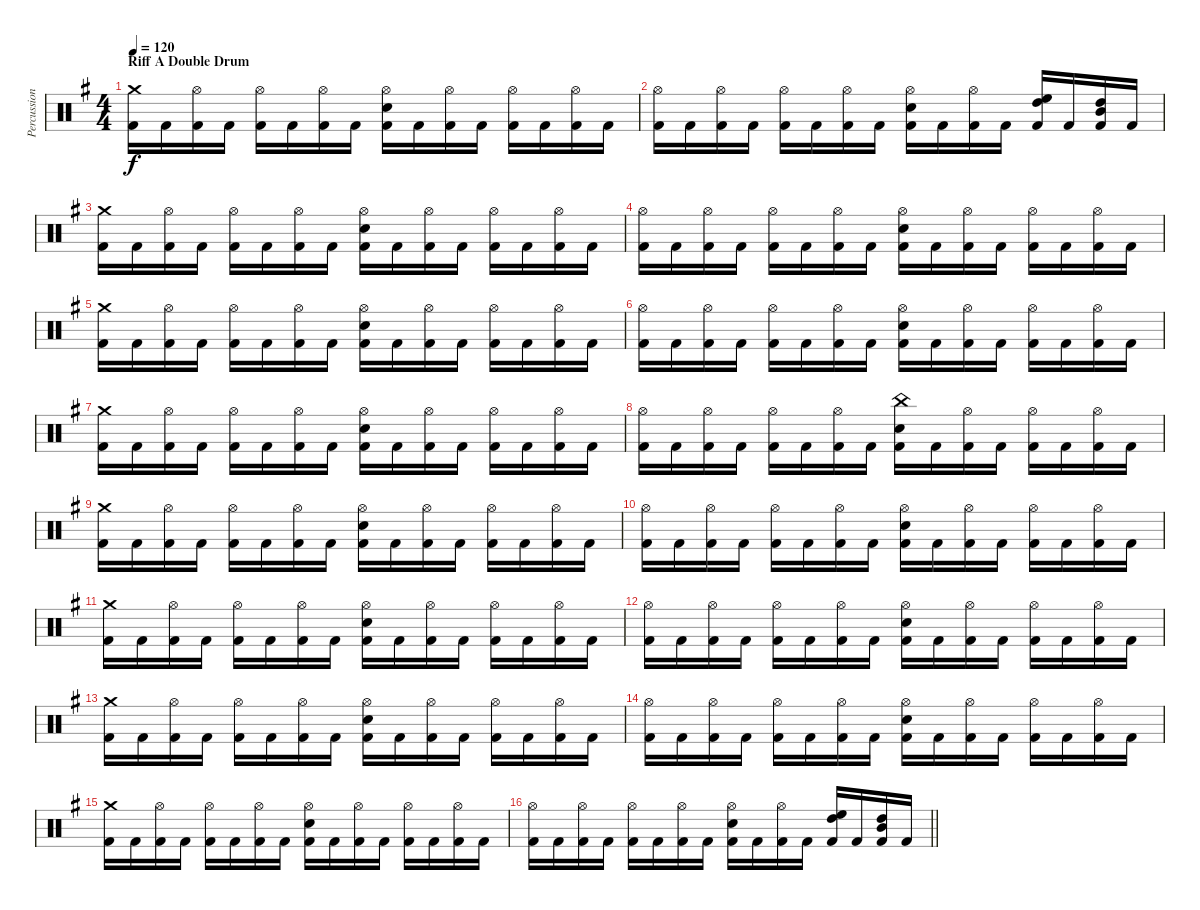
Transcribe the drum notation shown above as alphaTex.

\track ("Percussion" "Percussion") {instrument percussion}
\staff {score}
\articulation defaults
\ts (4 4)
\section ("" "Riff A Double Drum")
\tempo 120
\clef neutral
\ks eminor
("Crash medium (hit)" "Kick (hit) 2").16{dy f} "Kick (hit) 2".16 ("Hi-Hat (open)" "Kick (hit) 2").16 "Kick (hit) 2".16 ("Hi-Hat (open)" "Kick (hit) 2").16 "Kick (hit) 2".16 ("Hi-Hat (open)" "Kick (hit) 2").16 "Kick (hit) 2".16 ("Hi-Hat (open)" "Snare (hit) 2" "Kick (hit) 2").16 "Kick (hit) 2".16 ("Hi-Hat (open)" "Kick (hit) 2").16 "Kick (hit) 2".16 ("Hi-Hat (open)" "Kick (hit) 2").16 "Kick (hit) 2".16 ("Hi-Hat (open)" "Kick (hit) 2").16 "Kick (hit) 2".16 |
("Hi-Hat (open)" "Kick (hit) 2").16 "Kick (hit) 2".16 ("Hi-Hat (open)" "Kick (hit) 2").16 "Kick (hit) 2".16 ("Hi-Hat (open)" "Kick (hit) 2").16 "Kick (hit) 2".16 ("Hi-Hat (open)" "Kick (hit) 2").16 "Kick (hit) 2".16 ("Hi-Hat (open)" "Snare (hit) 2" "Kick (hit) 2").16 "Kick (hit) 2".16 ("Hi-Hat (open)" "Kick (hit) 2").16 "Kick (hit) 2".16 ("High Floor Tom (hit)" "High Tom (hit)" "Kick (hit) 2").16 "Kick (hit) 2".16 ("High Tom (hit)" "Mid Tom (hit)" "Kick (hit) 2").16 "Kick (hit) 2".16 |
("Crash medium (hit)" "Kick (hit) 2").16 "Kick (hit) 2".16 ("Hi-Hat (open)" "Kick (hit) 2").16 "Kick (hit) 2".16 ("Hi-Hat (open)" "Kick (hit) 2").16 "Kick (hit) 2".16 ("Hi-Hat (open)" "Kick (hit) 2").16 "Kick (hit) 2".16 ("Hi-Hat (open)" "Snare (hit) 2" "Kick (hit) 2").16 "Kick (hit) 2".16 ("Hi-Hat (open)" "Kick (hit) 2").16 "Kick (hit) 2".16 ("Hi-Hat (open)" "Kick (hit) 2").16 "Kick (hit) 2".16 ("Hi-Hat (open)" "Kick (hit) 2").16 "Kick (hit) 2".16 |
("Hi-Hat (open)" "Kick (hit) 2").16 "Kick (hit) 2".16 ("Hi-Hat (open)" "Kick (hit) 2").16 "Kick (hit) 2".16 ("Hi-Hat (open)" "Kick (hit) 2").16 "Kick (hit) 2".16 ("Hi-Hat (open)" "Kick (hit) 2").16 "Kick (hit) 2".16 ("Hi-Hat (open)" "Snare (hit) 2" "Kick (hit) 2").16 "Kick (hit) 2".16 ("Hi-Hat (open)" "Kick (hit) 2").16 "Kick (hit) 2".16 ("Hi-Hat (open)" "Kick (hit) 2").16 "Kick (hit) 2".16 ("Hi-Hat (open)" "Kick (hit) 2").16 "Kick (hit) 2".16 |
("Crash medium (hit)" "Kick (hit) 2").16 "Kick (hit) 2".16 ("Hi-Hat (open)" "Kick (hit) 2").16 "Kick (hit) 2".16 ("Hi-Hat (open)" "Kick (hit) 2").16 "Kick (hit) 2".16 ("Hi-Hat (open)" "Kick (hit) 2").16 "Kick (hit) 2".16 ("Hi-Hat (open)" "Snare (hit) 2" "Kick (hit) 2").16 "Kick (hit) 2".16 ("Hi-Hat (open)" "Kick (hit) 2").16 "Kick (hit) 2".16 ("Hi-Hat (open)" "Kick (hit) 2").16 "Kick (hit) 2".16 ("Hi-Hat (open)" "Kick (hit) 2").16 "Kick (hit) 2".16 |
("Hi-Hat (open)" "Kick (hit) 2").16 "Kick (hit) 2".16 ("Hi-Hat (open)" "Kick (hit) 2").16 "Kick (hit) 2".16 ("Hi-Hat (open)" "Kick (hit) 2").16 "Kick (hit) 2".16 ("Hi-Hat (open)" "Kick (hit) 2").16 "Kick (hit) 2".16 ("Hi-Hat (open)" "Snare (hit) 2" "Kick (hit) 2").16 "Kick (hit) 2".16 ("Hi-Hat (open)" "Kick (hit) 2").16 "Kick (hit) 2".16 ("Hi-Hat (open)" "Kick (hit) 2").16 "Kick (hit) 2".16 ("Hi-Hat (open)" "Kick (hit) 2").16 "Kick (hit) 2".16 |
("Crash medium (hit)" "Kick (hit) 2").16 "Kick (hit) 2".16 ("Hi-Hat (open)" "Kick (hit) 2").16 "Kick (hit) 2".16 ("Hi-Hat (open)" "Kick (hit) 2").16 "Kick (hit) 2".16 ("Hi-Hat (open)" "Kick (hit) 2").16 "Kick (hit) 2".16 ("Hi-Hat (open)" "Snare (hit) 2" "Kick (hit) 2").16 "Kick (hit) 2".16 ("Hi-Hat (open)" "Kick (hit) 2").16 "Kick (hit) 2".16 ("Hi-Hat (open)" "Kick (hit) 2").16 "Kick (hit) 2".16 ("Hi-Hat (open)" "Kick (hit) 2").16 "Kick (hit) 2".16 |
("Hi-Hat (open)" "Kick (hit) 2").16 "Kick (hit) 2".16 ("Hi-Hat (open)" "Kick (hit) 2").16 "Kick (hit) 2".16 ("Hi-Hat (open)" "Kick (hit) 2").16 "Kick (hit) 2".16 ("Hi-Hat (open)" "Kick (hit) 2").16 "Kick (hit) 2".16 ("China (hit)" "Snare (hit) 2" "Kick (hit) 2").16 "Kick (hit) 2".16 ("Hi-Hat (open)" "Kick (hit) 2").16 "Kick (hit) 2".16 ("Hi-Hat (open)" "Kick (hit) 2").16 "Kick (hit) 2".16 ("Hi-Hat (open)" "Kick (hit) 2").16 "Kick (hit) 2".16 |
("Crash medium (hit)" "Kick (hit) 2").16 "Kick (hit) 2".16 ("Hi-Hat (open)" "Kick (hit) 2").16 "Kick (hit) 2".16 ("Hi-Hat (open)" "Kick (hit) 2").16 "Kick (hit) 2".16 ("Hi-Hat (open)" "Kick (hit) 2").16 "Kick (hit) 2".16 ("Hi-Hat (open)" "Snare (hit) 2" "Kick (hit) 2").16 "Kick (hit) 2".16 ("Hi-Hat (open)" "Kick (hit) 2").16 "Kick (hit) 2".16 ("Hi-Hat (open)" "Kick (hit) 2").16 "Kick (hit) 2".16 ("Hi-Hat (open)" "Kick (hit) 2").16 "Kick (hit) 2".16 |
("Hi-Hat (open)" "Kick (hit) 2").16 "Kick (hit) 2".16 ("Hi-Hat (open)" "Kick (hit) 2").16 "Kick (hit) 2".16 ("Hi-Hat (open)" "Kick (hit) 2").16 "Kick (hit) 2".16 ("Hi-Hat (open)" "Kick (hit) 2").16 "Kick (hit) 2".16 ("Hi-Hat (open)" "Snare (hit) 2" "Kick (hit) 2").16 "Kick (hit) 2".16 ("Hi-Hat (open)" "Kick (hit) 2").16 "Kick (hit) 2".16 ("Hi-Hat (open)" "Kick (hit) 2").16 "Kick (hit) 2".16 ("Hi-Hat (open)" "Kick (hit) 2").16 "Kick (hit) 2".16 |
("Crash medium (hit)" "Kick (hit) 2").16 "Kick (hit) 2".16 ("Hi-Hat (open)" "Kick (hit) 2").16 "Kick (hit) 2".16 ("Hi-Hat (open)" "Kick (hit) 2").16 "Kick (hit) 2".16 ("Hi-Hat (open)" "Kick (hit) 2").16 "Kick (hit) 2".16 ("Hi-Hat (open)" "Snare (hit) 2" "Kick (hit) 2").16 "Kick (hit) 2".16 ("Hi-Hat (open)" "Kick (hit) 2").16 "Kick (hit) 2".16 ("Hi-Hat (open)" "Kick (hit) 2").16 "Kick (hit) 2".16 ("Hi-Hat (open)" "Kick (hit) 2").16 "Kick (hit) 2".16 |
("Hi-Hat (open)" "Kick (hit) 2").16 "Kick (hit) 2".16 ("Hi-Hat (open)" "Kick (hit) 2").16 "Kick (hit) 2".16 ("Hi-Hat (open)" "Kick (hit) 2").16 "Kick (hit) 2".16 ("Hi-Hat (open)" "Kick (hit) 2").16 "Kick (hit) 2".16 ("Hi-Hat (open)" "Snare (hit) 2" "Kick (hit) 2").16 "Kick (hit) 2".16 ("Hi-Hat (open)" "Kick (hit) 2").16 "Kick (hit) 2".16 ("Hi-Hat (open)" "Kick (hit) 2").16 "Kick (hit) 2".16 ("Hi-Hat (open)" "Kick (hit) 2").16 "Kick (hit) 2".16 |
("Crash medium (hit)" "Kick (hit) 2").16 "Kick (hit) 2".16 ("Hi-Hat (open)" "Kick (hit) 2").16 "Kick (hit) 2".16 ("Hi-Hat (open)" "Kick (hit) 2").16 "Kick (hit) 2".16 ("Hi-Hat (open)" "Kick (hit) 2").16 "Kick (hit) 2".16 ("Hi-Hat (open)" "Snare (hit) 2" "Kick (hit) 2").16 "Kick (hit) 2".16 ("Hi-Hat (open)" "Kick (hit) 2").16 "Kick (hit) 2".16 ("Hi-Hat (open)" "Kick (hit) 2").16 "Kick (hit) 2".16 ("Hi-Hat (open)" "Kick (hit) 2").16 "Kick (hit) 2".16 |
("Hi-Hat (open)" "Kick (hit) 2").16 "Kick (hit) 2".16 ("Hi-Hat (open)" "Kick (hit) 2").16 "Kick (hit) 2".16 ("Hi-Hat (open)" "Kick (hit) 2").16 "Kick (hit) 2".16 ("Hi-Hat (open)" "Kick (hit) 2").16 "Kick (hit) 2".16 ("Hi-Hat (open)" "Snare (hit) 2" "Kick (hit) 2").16 "Kick (hit) 2".16 ("Hi-Hat (open)" "Kick (hit) 2").16 "Kick (hit) 2".16 ("Hi-Hat (open)" "Kick (hit) 2").16 "Kick (hit) 2".16 ("Hi-Hat (open)" "Kick (hit) 2").16 "Kick (hit) 2".16 |
("Crash medium (hit)" "Kick (hit) 2").16 "Kick (hit) 2".16 ("Hi-Hat (open)" "Kick (hit) 2").16 "Kick (hit) 2".16 ("Hi-Hat (open)" "Kick (hit) 2").16 "Kick (hit) 2".16 ("Hi-Hat (open)" "Kick (hit) 2").16 "Kick (hit) 2".16 ("Hi-Hat (open)" "Snare (hit) 2" "Kick (hit) 2").16 "Kick (hit) 2".16 ("Hi-Hat (open)" "Kick (hit) 2").16 "Kick (hit) 2".16 ("Hi-Hat (open)" "Kick (hit) 2").16 "Kick (hit) 2".16 ("Hi-Hat (open)" "Kick (hit) 2").16 "Kick (hit) 2".16 |
\barLineRight lightlight
("Hi-Hat (open)" "Kick (hit) 2").16 "Kick (hit) 2".16 ("Hi-Hat (open)" "Kick (hit) 2").16 "Kick (hit) 2".16 ("Hi-Hat (open)" "Kick (hit) 2").16 "Kick (hit) 2".16 ("Hi-Hat (open)" "Kick (hit) 2").16 "Kick (hit) 2".16 ("Hi-Hat (open)" "Snare (hit) 2" "Kick (hit) 2").16 "Kick (hit) 2".16 ("Hi-Hat (open)" "Kick (hit) 2").16 "Kick (hit) 2".16 ("High Floor Tom (hit)" "High Tom (hit)" "Kick (hit) 2").16 "Kick (hit) 2".16 ("High Tom (hit)" "Mid Tom (hit)" "Kick (hit) 2").16 "Kick (hit) 2".16
